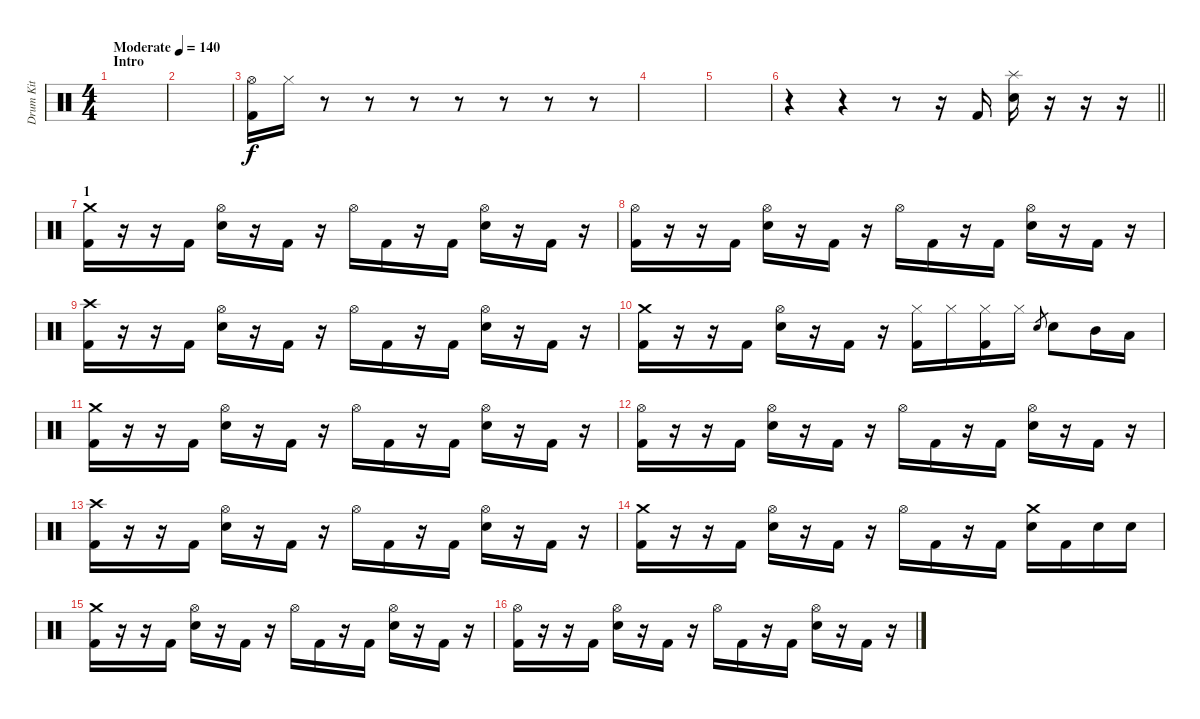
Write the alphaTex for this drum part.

\track ("Drum Kit" "Drum Kit") {instrument percussion}
\staff {score}
\articulation defaults
\ts (4 4)
\section ("" "Intro")
\tempo (140 "Moderate")
\clef neutral
\ks c
|
|
("Hi-Hat (open)" "Kick (hit) 2").16 "Hi-Hat (closed)".16 r.8 r.8 r.8 r.8 r.8 r.8 r.8 |
|
|
\barLineRight lightlight
r.4 r.4 r.8 r.16 "Kick (hit) 2".16 ("Splash (hit)" "Electric Snare (hit)").16 r.16 r.16 r.16 |
\section ("" "1")
("Crash medium (hit)" "Kick (hit) 2").16 r.16 r.16 "Kick (hit) 2".16 ("Hi-Hat (open)" "Electric Snare (hit)").16 r.16 "Kick (hit) 2".16 r.16 "Hi-Hat (open)".16 "Kick (hit) 2".16 r.16 "Kick (hit) 2".16 ("Hi-Hat (open)" "Electric Snare (hit)").16 r.16 "Kick (hit) 2".16 r.16 |
("Hi-Hat (open)" "Kick (hit) 2").16 r.16 r.16 "Kick (hit) 2".16 ("Hi-Hat (open)" "Electric Snare (hit)").16 r.16 "Kick (hit) 2".16 r.16 "Hi-Hat (open)".16 "Kick (hit) 2".16 r.16 "Kick (hit) 2".16 ("Hi-Hat (open)" "Electric Snare (hit)").16 r.16 "Kick (hit) 2".16 r.16 |
("Crash high (hit)" "Kick (hit) 2").16 r.16 r.16 "Kick (hit) 2".16 ("Hi-Hat (open)" "Electric Snare (hit)").16 r.16 "Kick (hit) 2".16 r.16 "Hi-Hat (open)".16 "Kick (hit) 2".16 r.16 "Kick (hit) 2".16 ("Hi-Hat (open)" "Electric Snare (hit)").16 r.16 "Kick (hit) 2".16 r.16 |
("Crash medium (hit)" "Kick (hit) 2").16 r.16 r.16 "Kick (hit) 2".16 ("Hi-Hat (open)" "Electric Snare (hit)").16 r.16 "Kick (hit) 2".16 r.16 ("Hi-Hat (closed)" "Kick (hit) 2").16 "Hi-Hat (closed)".16 ("Hi-Hat (closed)" "Kick (hit) 2").16 "Hi-Hat (closed)".16 "Electric Snare (hit)".8{gr} "Electric Snare (hit)".8 "Mid Tom (hit)".16 "Low Tom (hit)".16 |
("Crash medium (hit)" "Kick (hit) 2").16 r.16 r.16 "Kick (hit) 2".16 ("Hi-Hat (open)" "Electric Snare (hit)").16 r.16 "Kick (hit) 2".16 r.16 "Hi-Hat (open)".16 "Kick (hit) 2".16 r.16 "Kick (hit) 2".16 ("Hi-Hat (open)" "Electric Snare (hit)").16 r.16 "Kick (hit) 2".16 r.16 |
("Hi-Hat (open)" "Kick (hit) 2").16 r.16 r.16 "Kick (hit) 2".16 ("Hi-Hat (open)" "Electric Snare (hit)").16 r.16 "Kick (hit) 2".16 r.16 "Hi-Hat (open)".16 "Kick (hit) 2".16 r.16 "Kick (hit) 2".16 ("Hi-Hat (open)" "Electric Snare (hit)").16 r.16 "Kick (hit) 2".16 r.16 |
("Crash high (hit)" "Kick (hit) 2").16 r.16 r.16 "Kick (hit) 2".16 ("Hi-Hat (open)" "Electric Snare (hit)").16 r.16 "Kick (hit) 2".16 r.16 "Hi-Hat (open)".16 "Kick (hit) 2".16 r.16 "Kick (hit) 2".16 ("Hi-Hat (open)" "Electric Snare (hit)").16 r.16 "Kick (hit) 2".16 r.16 |
("Crash medium (hit)" "Kick (hit) 2").16 r.16 r.16 "Kick (hit) 2".16 ("Hi-Hat (open)" "Electric Snare (hit)").16 r.16 "Kick (hit) 2".16 r.16 "Hi-Hat (open)".16 "Kick (hit) 2".16 r.16 "Kick (hit) 2".16 ("Crash medium (hit)" "Electric Snare (hit)").16 "Kick (hit) 2".16 "Electric Snare (hit)".16 "Electric Snare (hit)".16 |
("Crash medium (hit)" "Kick (hit) 2").16 r.16 r.16 "Kick (hit) 2".16 ("Hi-Hat (open)" "Electric Snare (hit)").16 r.16 "Kick (hit) 2".16 r.16 "Hi-Hat (open)".16 "Kick (hit) 2".16 r.16 "Kick (hit) 2".16 ("Hi-Hat (open)" "Electric Snare (hit)").16 r.16 "Kick (hit) 2".16 r.16 |
("Hi-Hat (open)" "Kick (hit) 2").16 r.16 r.16 "Kick (hit) 2".16 ("Hi-Hat (open)" "Electric Snare (hit)").16 r.16 "Kick (hit) 2".16 r.16 "Hi-Hat (open)".16 "Kick (hit) 2".16 r.16 "Kick (hit) 2".16 ("Hi-Hat (open)" "Electric Snare (hit)").16 r.16 "Kick (hit) 2".16 r.16
